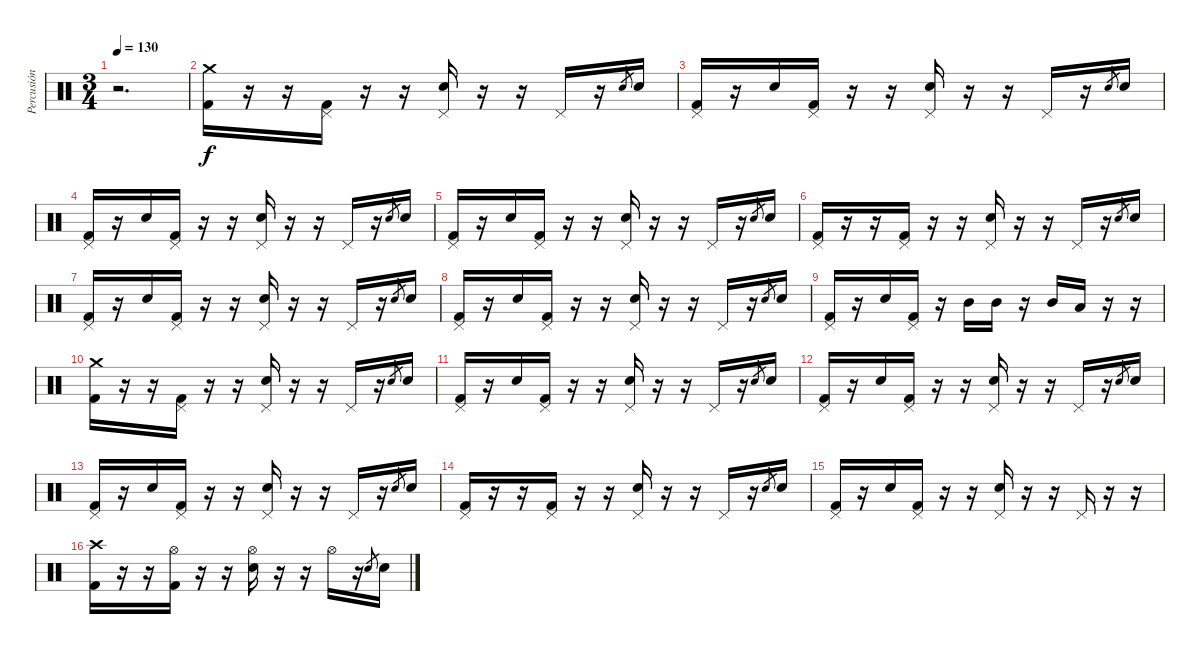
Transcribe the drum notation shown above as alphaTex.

\track ("Percusión" "Percusión") {instrument percussion}
\staff {score}
\articulation defaults
\ts (3 4)
\tempo 130
\clef neutral
\ks c
r.2{d dy f} |
("Crash medium (hit)" "Kick (hit) 2").16 r.16 r.16 ("Pedal Hi-Hat (hit)" "Kick (hit) 2").16 r.16 r.16 ("Pedal Hi-Hat (hit)" "Electric Snare (hit)").16 r.16 r.16 "Pedal Hi-Hat (hit)".16 r.16 "Electric Snare (hit)".8{gr} "Electric Snare (hit)".16 |
("Pedal Hi-Hat (hit)" "Kick (hit) 2").16 r.16 "Electric Snare (hit)".16 ("Pedal Hi-Hat (hit)" "Kick (hit) 2").16 r.16 r.16 ("Pedal Hi-Hat (hit)" "Electric Snare (hit)").16 r.16 r.16 "Pedal Hi-Hat (hit)".16 r.16 "Electric Snare (hit)".8{gr} "Electric Snare (hit)".16 |
("Pedal Hi-Hat (hit)" "Kick (hit) 2").16 r.16 "Electric Snare (hit)".16 ("Pedal Hi-Hat (hit)" "Kick (hit) 2").16 r.16 r.16 ("Pedal Hi-Hat (hit)" "Electric Snare (hit)").16 r.16 r.16 "Pedal Hi-Hat (hit)".16 r.16 "Electric Snare (hit)".8{gr} "Electric Snare (hit)".16 |
("Pedal Hi-Hat (hit)" "Kick (hit) 2").16 r.16 "Electric Snare (hit)".16 ("Pedal Hi-Hat (hit)" "Kick (hit) 2").16 r.16 r.16 ("Pedal Hi-Hat (hit)" "Electric Snare (hit)").16 r.16 r.16 "Pedal Hi-Hat (hit)".16 r.16 "Electric Snare (hit)".8{gr} "Electric Snare (hit)".16 |
("Pedal Hi-Hat (hit)" "Kick (hit) 2").16 r.16 r.16 ("Pedal Hi-Hat (hit)" "Kick (hit) 2").16 r.16 r.16 ("Pedal Hi-Hat (hit)" "Electric Snare (hit)").16 r.16 r.16 "Pedal Hi-Hat (hit)".16 r.16 "Electric Snare (hit)".8{gr} "Electric Snare (hit)".16 |
("Pedal Hi-Hat (hit)" "Kick (hit) 2").16 r.16 "Electric Snare (hit)".16 ("Pedal Hi-Hat (hit)" "Kick (hit) 2").16 r.16 r.16 ("Pedal Hi-Hat (hit)" "Electric Snare (hit)").16 r.16 r.16 "Pedal Hi-Hat (hit)".16 r.16 "Electric Snare (hit)".8{gr} "Electric Snare (hit)".16 |
("Pedal Hi-Hat (hit)" "Kick (hit) 2").16 r.16 "Electric Snare (hit)".16 ("Pedal Hi-Hat (hit)" "Kick (hit) 2").16 r.16 r.16 ("Pedal Hi-Hat (hit)" "Electric Snare (hit)").16 r.16 r.16 "Pedal Hi-Hat (hit)".16 r.16 "Electric Snare (hit)".8{gr} "Electric Snare (hit)".16 |
("Pedal Hi-Hat (hit)" "Kick (hit) 2").16 r.16 "Electric Snare (hit)".16 ("Pedal Hi-Hat (hit)" "Kick (hit) 2").16 r.16 "Mid Tom (hit)".16 "Mid Tom (hit)".16 r.16 "Mid Tom (hit)".16 "Low Tom (hit)".16 r.16 r.16 |
("Crash medium (hit)" "Kick (hit) 2").16 r.16 r.16 ("Pedal Hi-Hat (hit)" "Kick (hit) 2").16 r.16 r.16 ("Pedal Hi-Hat (hit)" "Electric Snare (hit)").16 r.16 r.16 "Pedal Hi-Hat (hit)".16 r.16 "Electric Snare (hit)".8{gr} "Electric Snare (hit)".16 |
("Pedal Hi-Hat (hit)" "Kick (hit) 2").16 r.16 "Electric Snare (hit)".16 ("Pedal Hi-Hat (hit)" "Kick (hit) 2").16 r.16 r.16 ("Pedal Hi-Hat (hit)" "Electric Snare (hit)").16 r.16 r.16 "Pedal Hi-Hat (hit)".16 r.16 "Electric Snare (hit)".8{gr} "Electric Snare (hit)".16 |
("Pedal Hi-Hat (hit)" "Kick (hit) 2").16 r.16 "Electric Snare (hit)".16 ("Pedal Hi-Hat (hit)" "Kick (hit) 2").16 r.16 r.16 ("Pedal Hi-Hat (hit)" "Electric Snare (hit)").16 r.16 r.16 "Pedal Hi-Hat (hit)".16 r.16 "Electric Snare (hit)".8{gr} "Electric Snare (hit)".16 |
("Pedal Hi-Hat (hit)" "Kick (hit) 2").16 r.16 "Electric Snare (hit)".16 ("Pedal Hi-Hat (hit)" "Kick (hit) 2").16 r.16 r.16 ("Pedal Hi-Hat (hit)" "Electric Snare (hit)").16 r.16 r.16 "Pedal Hi-Hat (hit)".16 r.16 "Electric Snare (hit)".8{gr} "Electric Snare (hit)".16 |
("Pedal Hi-Hat (hit)" "Kick (hit) 2").16 r.16 r.16 ("Pedal Hi-Hat (hit)" "Kick (hit) 2").16 r.16 r.16 ("Pedal Hi-Hat (hit)" "Electric Snare (hit)").16 r.16 r.16 "Pedal Hi-Hat (hit)".16 r.16 "Electric Snare (hit)".8{gr} "Electric Snare (hit)".16 |
("Pedal Hi-Hat (hit)" "Kick (hit) 2").16 r.16 "Electric Snare (hit)".16 ("Pedal Hi-Hat (hit)" "Kick (hit) 2").16 r.16 r.16 ("Pedal Hi-Hat (hit)" "Electric Snare (hit)").16 r.16 r.16 "Pedal Hi-Hat (hit)".16 r.16 r.16 |
("Crash high (hit)" "Kick (hit) 2").16 r.16 r.16 ("Hi-Hat (open)" "Kick (hit) 2").16 r.16 r.16 ("Hi-Hat (open)" "Electric Snare (hit)").16 r.16 r.16 "Hi-Hat (open)".16 r.16 "Electric Snare (hit)".8{gr} "Electric Snare (hit)".16
